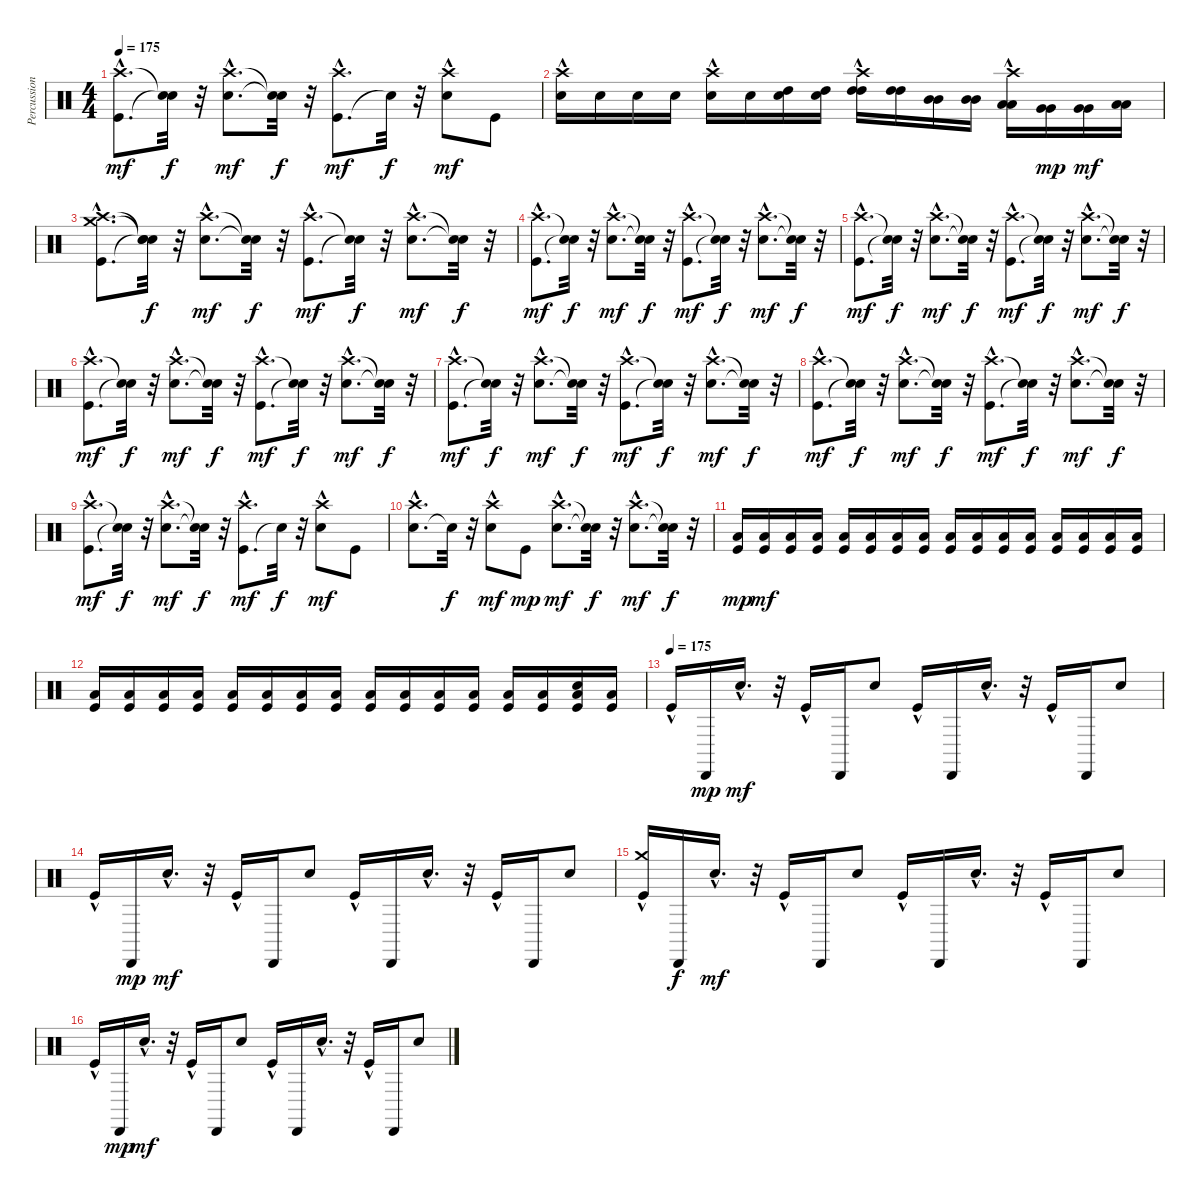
\track ("Percussion" "Percussion") {instrument percussion}
\staff {score}
\articulation defaults
\ts (4 4)
\tempo 175
\clef neutral
\ks c
("Kick (hit)"{hac} "Crash high (hit)"{hac}).8{d dy mf} ("Snare (hit)"{t} "Snare (hit)"{t}).32{dy f} r.32 ("Snare (hit) 2"{hac} "Crash high (hit)"{hac}).8{d dy mf} ("Snare (hit)"{t} "Snare (hit)"{t}).32{dy f} r.32 ("Kick (hit)"{hac} "Crash high (hit)"{hac}).8{d dy mf} "Snare (hit)"{t}.32{dy f} r.32 ("Snare (hit) 2" "Crash high (hit)"{hac}).8{dy mf} "Kick (hit)".8 |
("Snare (hit) 2" "Crash high (hit)"{hac}).16 "Snare (hit) 2".16 "Snare (hit) 2".16 "Snare (hit) 2".16 ("Snare (hit) 2" "Crash high (hit)"{hac}).16 "Snare (hit) 2".16 ("High Tom (hit)" "Snare (hit) 2").16 ("High Tom (hit)" "Snare (hit) 2").16 ("High Tom (hit)" "High Tom (hit)" "Crash high (hit)"{hac}).16 ("High Tom (hit)" "High Tom (hit)").16 ("Mid Tom (hit)" "Mid Tom (hit)").16 ("Mid Tom (hit)" "Mid Tom (hit)").16 ("Low Tom (hit)" "Low Tom (hit)" "Crash high (hit)"{hac}).16 ("Very Low Tom (hit)" "Very Low Tom (hit)").16{dy mp} ("Very Low Tom (hit)" "Very Low Tom (hit)").16{dy mf} ("Low Floor Tom (hit)" "Low Floor Tom (hit)").16 |
("Crash medium (hit)"{hac} "Kick (hit)"{hac} "Crash high (hit)"{hac}).8{d} ("Snare (hit)"{t} "Snare (hit)"{t} "Snare (hit)"{t}).32{dy f} r.32 ("Snare (hit) 2"{hac} "Crash high (hit)"{hac}).8{d dy mf} ("Snare (hit)"{t} "Snare (hit)"{t}).32{dy f} r.32 ("Kick (hit)"{hac} "Crash high (hit)"{hac}).8{d dy mf} ("Snare (hit)"{t} "Snare (hit)"{t}).32{dy f} r.32 ("Snare (hit) 2"{hac} "Crash high (hit)"{hac}).8{d dy mf} ("Snare (hit)"{t} "Snare (hit)"{t}).32{dy f} r.32 |
("Kick (hit)"{hac} "Crash high (hit)"{hac}).8{d dy mf} ("Snare (hit)"{t} "Snare (hit)"{t}).32{dy f} r.32 ("Snare (hit) 2"{hac} "Crash high (hit)"{hac}).8{d dy mf} ("Snare (hit)"{t} "Snare (hit)"{t}).32{dy f} r.32 ("Kick (hit)"{hac} "Crash high (hit)"{hac}).8{d dy mf} ("Snare (hit)"{t} "Snare (hit)"{t}).32{dy f} r.32 ("Snare (hit) 2"{hac} "Crash high (hit)"{hac}).8{d dy mf} ("Snare (hit)"{t} "Snare (hit)"{t}).32{dy f} r.32 |
("Kick (hit)"{hac} "Crash high (hit)"{hac}).8{d dy mf} ("Snare (hit)"{t} "Snare (hit)"{t}).32{dy f} r.32 ("Snare (hit) 2"{hac} "Crash high (hit)"{hac}).8{d dy mf} ("Snare (hit)"{t} "Snare (hit)"{t}).32{dy f} r.32 ("Kick (hit)"{hac} "Crash high (hit)"{hac}).8{d dy mf} ("Snare (hit)"{t} "Snare (hit)"{t}).32{dy f} r.32 ("Snare (hit) 2"{hac} "Crash high (hit)"{hac}).8{d dy mf} ("Snare (hit)"{t} "Snare (hit)"{t}).32{dy f} r.32 |
("Kick (hit)"{hac} "Crash high (hit)"{hac}).8{d dy mf} ("Snare (hit)"{t} "Snare (hit)"{t}).32{dy f} r.32 ("Snare (hit) 2"{hac} "Crash high (hit)"{hac}).8{d dy mf} ("Snare (hit)"{t} "Snare (hit)"{t}).32{dy f} r.32 ("Kick (hit)"{hac} "Crash high (hit)"{hac}).8{d dy mf} ("Snare (hit)"{t} "Snare (hit)"{t}).32{dy f} r.32 ("Snare (hit) 2"{hac} "Crash high (hit)"{hac}).8{d dy mf} ("Snare (hit)"{t} "Snare (hit)"{t}).32{dy f} r.32 |
("Kick (hit)"{hac} "Crash high (hit)"{hac}).8{d dy mf} ("Snare (hit)"{t} "Snare (hit)"{t}).32{dy f} r.32 ("Snare (hit) 2"{hac} "Crash high (hit)"{hac}).8{d dy mf} ("Snare (hit)"{t} "Snare (hit)"{t}).32{dy f} r.32 ("Kick (hit)"{hac} "Crash high (hit)"{hac}).8{d dy mf} ("Snare (hit)"{t} "Snare (hit)"{t}).32{dy f} r.32 ("Snare (hit) 2"{hac} "Crash high (hit)"{hac}).8{d dy mf} ("Snare (hit)"{t} "Snare (hit)"{t}).32{dy f} r.32 |
("Kick (hit)"{hac} "Crash high (hit)"{hac}).8{d dy mf} ("Snare (hit)"{t} "Snare (hit)"{t}).32{dy f} r.32 ("Snare (hit) 2"{hac} "Crash high (hit)"{hac}).8{d dy mf} ("Snare (hit)"{t} "Snare (hit)"{t}).32{dy f} r.32 ("Kick (hit)"{hac} "Crash high (hit)"{hac}).8{d dy mf} ("Snare (hit)"{t} "Snare (hit)"{t}).32{dy f} r.32 ("Snare (hit) 2"{hac} "Crash high (hit)"{hac}).8{d dy mf} ("Snare (hit)"{t} "Snare (hit)"{t}).32{dy f} r.32 |
("Kick (hit)"{hac} "Crash high (hit)"{hac}).8{d dy mf} ("Snare (hit)"{t} "Snare (hit)"{t}).32{dy f} r.32 ("Snare (hit) 2"{hac} "Crash high (hit)"{hac}).8{d dy mf} ("Snare (hit)"{t} "Snare (hit)"{t}).32{dy f} r.32 ("Kick (hit)"{hac} "Crash high (hit)"{hac}).8{d dy mf} "Snare (hit)"{t}.32{dy f} r.32 ("Snare (hit) 2" "Crash high (hit)"{hac}).8{dy mf} "Kick (hit)".8 |
("Snare (hit) 2" "Crash high (hit)"{hac}).8{d} "Snare (hit)"{t}.32{dy f} r.32 ("Snare (hit) 2" "Crash high (hit)"{hac}).8{dy mf} "Kick (hit)".8{dy mp} ("Snare (hit) 2"{hac} "Crash high (hit)"{hac}).8{d dy mf} ("Snare (hit)"{t} "Snare (hit)"{t}).32{dy f} r.32 ("Snare (hit) 2"{hac} "Crash high (hit)"{hac}).8{d dy mf} ("Snare (hit)"{t} "Snare (hit)"{t}).32{dy f} r.32 |
("Low Floor Tom (hit)" "Kick (hit)").16{dy mp} ("Low Floor Tom (hit)" "Kick (hit)").16{dy mf} ("Low Floor Tom (hit)" "Kick (hit)").16 ("Low Floor Tom (hit)" "Kick (hit)").16 ("Low Floor Tom (hit)" "Kick (hit)").16 ("Low Floor Tom (hit)" "Kick (hit)").16 ("Low Floor Tom (hit)" "Kick (hit)").16 ("Low Floor Tom (hit)" "Kick (hit)").16 ("Low Floor Tom (hit)" "Kick (hit)").16 ("Low Floor Tom (hit)" "Kick (hit)").16 ("Low Floor Tom (hit)" "Kick (hit)").16 ("Low Floor Tom (hit)" "Kick (hit)").16 ("Low Floor Tom (hit)" "Kick (hit)").16 ("Low Floor Tom (hit)" "Kick (hit)").16 ("Low Floor Tom (hit)" "Kick (hit)").16 ("Low Floor Tom (hit)" "Kick (hit)").16 |
("Low Floor Tom (hit)" "Kick (hit)").16 ("Low Floor Tom (hit)" "Kick (hit)").16 ("Low Floor Tom (hit)" "Kick (hit)").16 ("Low Floor Tom (hit)" "Kick (hit)").16 ("Low Floor Tom (hit)" "Kick (hit)").16 ("Low Floor Tom (hit)" "Kick (hit)").16 ("Low Floor Tom (hit)" "Kick (hit)").16 ("Low Floor Tom (hit)" "Kick (hit)").16 ("Low Floor Tom (hit)" "Kick (hit)").16 ("Low Floor Tom (hit)" "Kick (hit)").16 ("Low Floor Tom (hit)" "Kick (hit)").16 ("Low Floor Tom (hit)" "Kick (hit)").16 ("Low Floor Tom (hit)" "Kick (hit)").16 ("Low Floor Tom (hit)" "Kick (hit)").16 ("Low Floor Tom (hit)" "Snare (hit) 2" "Kick (hit)").16 ("Low Floor Tom (hit)" "Kick (hit)").16 |
\tempo (175)
"Kick (hit)"{hac}.16 "Cabasa (hit)".16{dy mp} "Snare (hit) 2"{hac}.16{d dy mf} r.32 "Kick (hit)"{hac}.16 "Cabasa (hit)".16 "Snare (hit) 2".8 "Kick (hit)"{hac}.16 "Cabasa (hit)".16 "Snare (hit) 2"{hac}.16{d} r.32 "Kick (hit)"{hac}.16 "Cabasa (hit)".16 "Snare (hit) 2".8 |
"Kick (hit)"{hac}.16 "Cabasa (hit)".16{dy mp} "Snare (hit) 2"{hac}.16{d dy mf} r.32 "Kick (hit)"{hac}.16 "Cabasa (hit)".16 "Snare (hit) 2".8 "Kick (hit)"{hac}.16 "Cabasa (hit)".16 "Snare (hit) 2"{hac}.16{d} r.32 "Kick (hit)"{hac}.16 "Cabasa (hit)".16 "Snare (hit) 2".8 |
("Crash medium (hit)" "Kick (hit)"{hac}).16 "Cabasa (hit)".16{dy f} "Snare (hit) 2"{hac}.16{d dy mf} r.32 "Kick (hit)"{hac}.16 "Cabasa (hit)".16 "Snare (hit) 2".8 "Kick (hit)"{hac}.16 "Cabasa (hit)".16 "Snare (hit) 2"{hac}.16{d} r.32 "Kick (hit)"{hac}.16 "Cabasa (hit)".16 "Snare (hit) 2".8 |
"Kick (hit)"{hac}.16 "Cabasa (hit)".16{dy mp} "Snare (hit) 2"{hac}.16{d dy mf} r.32 "Kick (hit)"{hac}.16 "Cabasa (hit)".16 "Snare (hit) 2".8 "Kick (hit)"{hac}.16 "Cabasa (hit)".16 "Snare (hit) 2"{hac}.16{d} r.32 "Kick (hit)"{hac}.16 "Cabasa (hit)".16 "Snare (hit) 2".8
